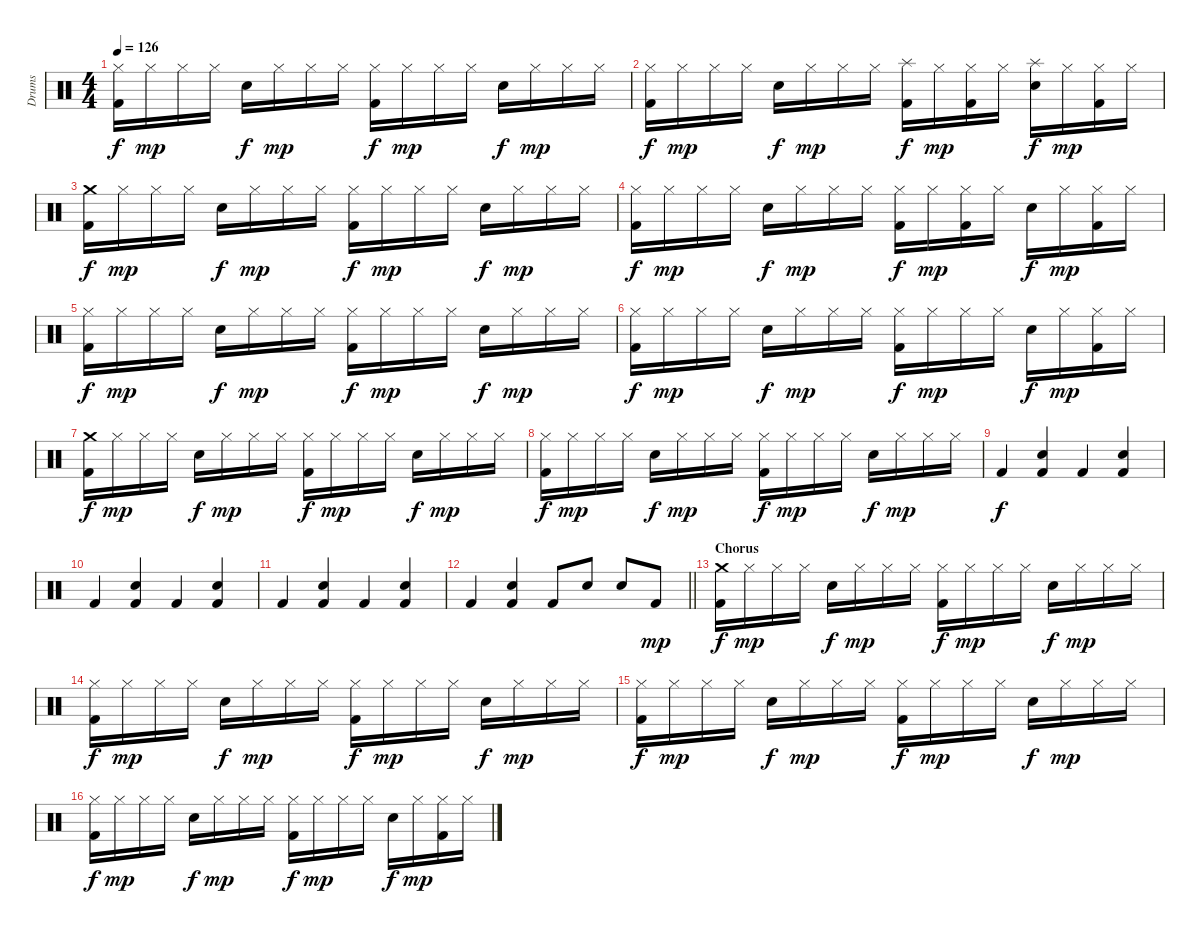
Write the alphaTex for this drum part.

\track ("Drums" "Drums") {instrument percussion}
\staff {score}
\articulation defaults
\ts (4 4)
\tempo 126
\clef neutral
\ks c
("Hi-Hat (closed)" "Kick (hit) 2").16{dy f} "Hi-Hat (closed)".16{dy mp} "Hi-Hat (closed)".16 "Hi-Hat (closed)".16 "Snare (hit) 2".16{dy f} "Hi-Hat (closed)".16{dy mp} "Hi-Hat (closed)".16 "Hi-Hat (closed)".16 ("Hi-Hat (closed)" "Kick (hit) 2").16{dy f} "Hi-Hat (closed)".16{dy mp} "Hi-Hat (closed)".16 "Hi-Hat (closed)".16 "Snare (hit) 2".16{dy f} "Hi-Hat (closed)".16{dy mp} "Hi-Hat (closed)".16 "Hi-Hat (closed)".16 |
("Hi-Hat (closed)" "Kick (hit) 2").16{dy f} "Hi-Hat (closed)".16{dy mp} "Hi-Hat (closed)".16 "Hi-Hat (closed)".16 "Snare (hit) 2".16{dy f} "Hi-Hat (closed)".16{dy mp} "Hi-Hat (closed)".16 "Hi-Hat (closed)".16 ("Splash (hit)" "Kick (hit) 2").16{dy f} "Hi-Hat (closed)".16{dy mp} ("Hi-Hat (closed)" "Kick (hit) 2").16 "Hi-Hat (closed)".16 ("Splash (hit)" "Snare (hit) 2").16{dy f} "Hi-Hat (closed)".16{dy mp} ("Hi-Hat (closed)" "Kick (hit) 2").16 "Hi-Hat (closed)".16 |
("Crash medium (hit)" "Kick (hit) 2").16{dy f} "Hi-Hat (closed)".16{dy mp} "Hi-Hat (closed)".16 "Hi-Hat (closed)".16 "Snare (hit) 2".16{dy f} "Hi-Hat (closed)".16{dy mp} "Hi-Hat (closed)".16 "Hi-Hat (closed)".16 ("Hi-Hat (closed)" "Kick (hit) 2").16{dy f} "Hi-Hat (closed)".16{dy mp} "Hi-Hat (closed)".16 "Hi-Hat (closed)".16 "Snare (hit) 2".16{dy f} "Hi-Hat (closed)".16{dy mp} "Hi-Hat (closed)".16 "Hi-Hat (closed)".16 |
("Hi-Hat (closed)" "Kick (hit) 2").16{dy f} "Hi-Hat (closed)".16{dy mp} "Hi-Hat (closed)".16 "Hi-Hat (closed)".16 "Snare (hit) 2".16{dy f} "Hi-Hat (closed)".16{dy mp} "Hi-Hat (closed)".16 "Hi-Hat (closed)".16 ("Hi-Hat (closed)" "Kick (hit) 2").16{dy f} "Hi-Hat (closed)".16{dy mp} ("Hi-Hat (closed)" "Kick (hit) 2").16 "Hi-Hat (closed)".16 "Snare (hit) 2".16{dy f} "Hi-Hat (closed)".16{dy mp} ("Hi-Hat (closed)" "Kick (hit) 2").16 "Hi-Hat (closed)".16 |
("Hi-Hat (closed)" "Kick (hit) 2").16{dy f} "Hi-Hat (closed)".16{dy mp} "Hi-Hat (closed)".16 "Hi-Hat (closed)".16 "Snare (hit) 2".16{dy f} "Hi-Hat (closed)".16{dy mp} "Hi-Hat (closed)".16 "Hi-Hat (closed)".16 ("Hi-Hat (closed)" "Kick (hit) 2").16{dy f} "Hi-Hat (closed)".16{dy mp} "Hi-Hat (closed)".16 "Hi-Hat (closed)".16 "Snare (hit) 2".16{dy f} "Hi-Hat (closed)".16{dy mp} "Hi-Hat (closed)".16 "Hi-Hat (closed)".16 |
("Hi-Hat (closed)" "Kick (hit) 2").16{dy f} "Hi-Hat (closed)".16{dy mp} "Hi-Hat (closed)".16 "Hi-Hat (closed)".16 "Snare (hit) 2".16{dy f} "Hi-Hat (closed)".16{dy mp} "Hi-Hat (closed)".16 "Hi-Hat (closed)".16 ("Hi-Hat (closed)" "Kick (hit) 2").16{dy f} "Hi-Hat (closed)".16{dy mp} "Hi-Hat (closed)".16 "Hi-Hat (closed)".16 "Snare (hit) 2".16{dy f} "Hi-Hat (closed)".16{dy mp} ("Hi-Hat (closed)" "Kick (hit) 2").16 "Hi-Hat (closed)".16 |
("Crash medium (hit)" "Kick (hit) 2").16{dy f} "Hi-Hat (closed)".16{dy mp} "Hi-Hat (closed)".16 "Hi-Hat (closed)".16 "Snare (hit) 2".16{dy f} "Hi-Hat (closed)".16{dy mp} "Hi-Hat (closed)".16 "Hi-Hat (closed)".16 ("Hi-Hat (closed)" "Kick (hit) 2").16{dy f} "Hi-Hat (closed)".16{dy mp} "Hi-Hat (closed)".16 "Hi-Hat (closed)".16 "Snare (hit) 2".16{dy f} "Hi-Hat (closed)".16{dy mp} "Hi-Hat (closed)".16 "Hi-Hat (closed)".16 |
("Hi-Hat (closed)" "Kick (hit) 2").16{dy f} "Hi-Hat (closed)".16{dy mp} "Hi-Hat (closed)".16 "Hi-Hat (closed)".16 "Snare (hit) 2".16{dy f} "Hi-Hat (closed)".16{dy mp} "Hi-Hat (closed)".16 "Hi-Hat (closed)".16 ("Hi-Hat (closed)" "Kick (hit) 2").16{dy f} "Hi-Hat (closed)".16{dy mp} "Hi-Hat (closed)".16 "Hi-Hat (closed)".16 "Snare (hit) 2".16{dy f} "Hi-Hat (closed)".16{dy mp} "Hi-Hat (closed)".16 "Hi-Hat (closed)".16 |
"Kick (hit) 2".4{dy f} ("Snare (hit) 2" "Kick (hit) 2").4 "Kick (hit) 2".4 ("Snare (hit) 2" "Kick (hit) 2").4 |
"Kick (hit) 2".4 ("Snare (hit) 2" "Kick (hit) 2").4 "Kick (hit) 2".4 ("Snare (hit) 2" "Kick (hit) 2").4 |
"Kick (hit) 2".4 ("Snare (hit) 2" "Kick (hit) 2").4 "Kick (hit) 2".4 ("Snare (hit) 2" "Kick (hit) 2").4 |
\barLineRight lightlight "Kick (hit) 2".4
("Snare (hit) 2" "Kick (hit) 2").4 "Kick (hit) 2".8 "Snare (hit) 2".8 "Snare (hit) 2".8 "Kick (hit) 2".8{dy mp} |
\section ("" "Chorus")
("Crash medium (hit)" "Kick (hit) 2").16{dy f} "Hi-Hat (closed)".16{dy mp} "Hi-Hat (closed)".16 "Hi-Hat (closed)".16 "Snare (hit) 2".16{dy f} "Hi-Hat (closed)".16{dy mp} "Hi-Hat (closed)".16 "Hi-Hat (closed)".16 ("Hi-Hat (closed)" "Kick (hit) 2").16{dy f} "Hi-Hat (closed)".16{dy mp} "Hi-Hat (closed)".16 "Hi-Hat (closed)".16 "Snare (hit) 2".16{dy f} "Hi-Hat (closed)".16{dy mp} "Hi-Hat (closed)".16 "Hi-Hat (closed)".16 |
("Hi-Hat (closed)" "Kick (hit) 2").16{dy f} "Hi-Hat (closed)".16{dy mp} "Hi-Hat (closed)".16 "Hi-Hat (closed)".16 "Snare (hit) 2".16{dy f} "Hi-Hat (closed)".16{dy mp} "Hi-Hat (closed)".16 "Hi-Hat (closed)".16 ("Hi-Hat (closed)" "Kick (hit) 2").16{dy f} "Hi-Hat (closed)".16{dy mp} "Hi-Hat (closed)".16 "Hi-Hat (closed)".16 "Snare (hit) 2".16{dy f} "Hi-Hat (closed)".16{dy mp} "Hi-Hat (closed)".16 "Hi-Hat (closed)".16 |
("Hi-Hat (closed)" "Kick (hit) 2").16{dy f} "Hi-Hat (closed)".16{dy mp} "Hi-Hat (closed)".16 "Hi-Hat (closed)".16 "Snare (hit) 2".16{dy f} "Hi-Hat (closed)".16{dy mp} "Hi-Hat (closed)".16 "Hi-Hat (closed)".16 ("Hi-Hat (closed)" "Kick (hit) 2").16{dy f} "Hi-Hat (closed)".16{dy mp} "Hi-Hat (closed)".16 "Hi-Hat (closed)".16 "Snare (hit) 2".16{dy f} "Hi-Hat (closed)".16{dy mp} "Hi-Hat (closed)".16 "Hi-Hat (closed)".16 |
("Hi-Hat (closed)" "Kick (hit) 2").16{dy f} "Hi-Hat (closed)".16{dy mp} "Hi-Hat (closed)".16 "Hi-Hat (closed)".16 "Snare (hit) 2".16{dy f} "Hi-Hat (closed)".16{dy mp} "Hi-Hat (closed)".16 "Hi-Hat (closed)".16 ("Hi-Hat (closed)" "Kick (hit) 2").16{dy f} "Hi-Hat (closed)".16{dy mp} "Hi-Hat (closed)".16 "Hi-Hat (closed)".16 "Snare (hit) 2".16{dy f} "Hi-Hat (closed)".16{dy mp} ("Hi-Hat (closed)" "Kick (hit) 2").16 "Hi-Hat (closed)".16
